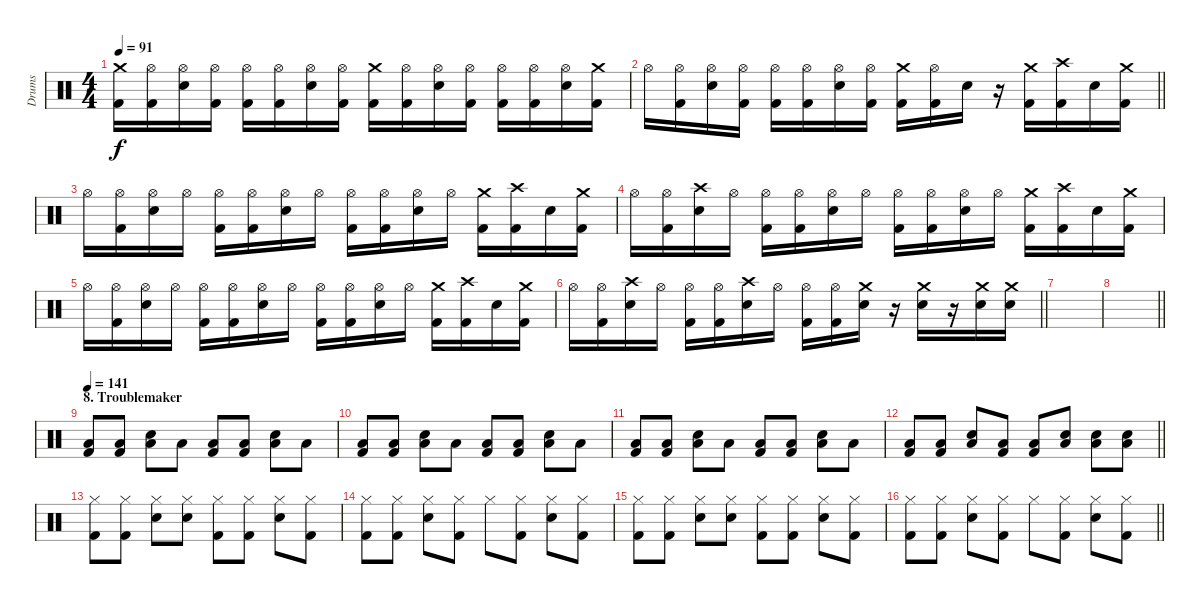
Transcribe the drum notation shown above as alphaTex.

\track ("Drums" "Drums") {instrument percussion}
\staff {score}
\articulation defaults
\ts (4 4)
\tempo 91
\clef neutral
\ks c
("Crash medium (hit)" "Kick (hit) 2").16{dy f} ("Hi-Hat (open)" "Kick (hit) 2").16 ("Hi-Hat (open)" "Electric Snare (hit)").16 ("Hi-Hat (open)" "Kick (hit) 2").16 ("Hi-Hat (open)" "Kick (hit) 2").16 ("Hi-Hat (open)" "Kick (hit) 2").16 ("Hi-Hat (open)" "Electric Snare (hit)").16 ("Hi-Hat (open)" "Kick (hit) 2").16 ("Crash medium (hit)" "Kick (hit) 2").16 ("Hi-Hat (open)" "Kick (hit) 2").16 ("Hi-Hat (open)" "Electric Snare (hit)").16 ("Hi-Hat (open)" "Kick (hit) 2").16 ("Hi-Hat (open)" "Kick (hit) 2").16 ("Hi-Hat (open)" "Kick (hit) 2").16 ("Hi-Hat (open)" "Electric Snare (hit)").16 ("Crash medium (hit)" "Kick (hit) 2").16 |
\barLineRight lightlight "Hi-Hat (open)".16
("Hi-Hat (open)" "Kick (hit) 2").16 ("Hi-Hat (open)" "Electric Snare (hit)").16 ("Hi-Hat (open)" "Kick (hit) 2").16 ("Hi-Hat (open)" "Kick (hit) 2").16 ("Hi-Hat (open)" "Kick (hit) 2").16 ("Hi-Hat (open)" "Electric Snare (hit)").16 ("Hi-Hat (open)" "Kick (hit) 2").16 ("Crash medium (hit)" "Kick (hit) 2").16 ("Hi-Hat (open)" "Kick (hit) 2").16 "Electric Snare (hit)".16 r.16 ("Crash medium (hit)" "Kick (hit) 2").16 ("Crash high (hit)" "Kick (hit) 2").16 "Electric Snare (hit)".16 ("Crash medium (hit)" "Kick (hit) 2").16 |
"Hi-Hat (open)".16 ("Hi-Hat (open)" "Kick (hit) 2").16 ("Hi-Hat (open)" "Electric Snare (hit)").16 "Hi-Hat (open)".16 ("Hi-Hat (open)" "Kick (hit) 2").16 ("Hi-Hat (open)" "Kick (hit) 2").16 ("Hi-Hat (open)" "Electric Snare (hit)").16 "Hi-Hat (open)".16 ("Hi-Hat (open)" "Kick (hit) 2").16 ("Hi-Hat (open)" "Kick (hit) 2").16 ("Hi-Hat (open)" "Electric Snare (hit)").16 "Hi-Hat (open)".16 ("Crash medium (hit)" "Kick (hit) 2").16 ("Crash high (hit)" "Kick (hit) 2").16 "Electric Snare (hit)".16 ("Crash medium (hit)" "Kick (hit) 2").16 |
"Hi-Hat (open)".16 ("Hi-Hat (open)" "Kick (hit) 2").16 ("Crash high (hit)" "Electric Snare (hit)").16 "Hi-Hat (open)".16 ("Hi-Hat (open)" "Kick (hit) 2").16 ("Hi-Hat (open)" "Kick (hit) 2").16 ("Hi-Hat (open)" "Electric Snare (hit)").16 "Hi-Hat (open)".16 ("Hi-Hat (open)" "Kick (hit) 2").16 ("Hi-Hat (open)" "Kick (hit) 2").16 ("Hi-Hat (open)" "Electric Snare (hit)").16 "Hi-Hat (open)".16 ("Crash medium (hit)" "Kick (hit) 2").16 ("Crash high (hit)" "Kick (hit) 2").16 "Electric Snare (hit)".16 ("Crash medium (hit)" "Kick (hit) 2").16 |
"Hi-Hat (open)".16 ("Hi-Hat (open)" "Kick (hit) 2").16 ("Hi-Hat (open)" "Electric Snare (hit)").16 "Hi-Hat (open)".16 ("Hi-Hat (open)" "Kick (hit) 2").16 ("Hi-Hat (open)" "Kick (hit) 2").16 ("Hi-Hat (open)" "Electric Snare (hit)").16 "Hi-Hat (open)".16 ("Hi-Hat (open)" "Kick (hit) 2").16 ("Hi-Hat (open)" "Kick (hit) 2").16 ("Hi-Hat (open)" "Electric Snare (hit)").16 "Hi-Hat (open)".16 ("Crash medium (hit)" "Kick (hit) 2").16 ("Crash high (hit)" "Kick (hit) 2").16 "Electric Snare (hit)".16 ("Crash medium (hit)" "Kick (hit) 2").16 |
\barLineRight lightlight "Hi-Hat (open)".16
("Hi-Hat (open)" "Kick (hit) 2").16 ("Crash high (hit)" "Electric Snare (hit)").16 "Hi-Hat (open)".16 ("Hi-Hat (open)" "Kick (hit) 2").16 ("Hi-Hat (open)" "Kick (hit) 2").16 ("Crash high (hit)" "Electric Snare (hit)").16 "Hi-Hat (open)".16 ("Hi-Hat (open)" "Kick (hit) 2").16 ("Hi-Hat (open)" "Kick (hit) 2").16 ("Crash medium (hit)" "Electric Snare (hit)").16 r.16 ("Crash medium (hit)" "Electric Snare (hit)").16 r.16 ("Crash medium (hit)" "Electric Snare (hit)").16 ("Crash medium (hit)" "Electric Snare (hit)").16 |
|
\barLineRight lightlight
|
\section ("" "8. Troublemaker")
\tempo 141
("Low Floor Tom (hit)" "Kick (hit) 2").8 ("Low Floor Tom (hit)" "Kick (hit) 2").8 ("Electric Snare (hit)" "Low Floor Tom (hit)").8 "Low Floor Tom (hit)".8 ("Low Floor Tom (hit)" "Kick (hit) 2").8 ("Low Floor Tom (hit)" "Kick (hit) 2").8 ("Electric Snare (hit)" "Low Floor Tom (hit)").8 "Low Floor Tom (hit)".8 |
("Low Floor Tom (hit)" "Kick (hit) 2").8 ("Low Floor Tom (hit)" "Kick (hit) 2").8 ("Electric Snare (hit)" "Low Floor Tom (hit)").8 "Low Floor Tom (hit)".8 ("Low Floor Tom (hit)" "Kick (hit) 2").8 ("Low Floor Tom (hit)" "Kick (hit) 2").8 ("Electric Snare (hit)" "Low Floor Tom (hit)").8 "Low Floor Tom (hit)".8 |
("Low Floor Tom (hit)" "Kick (hit) 2").8 ("Low Floor Tom (hit)" "Kick (hit) 2").8 ("Electric Snare (hit)" "Low Floor Tom (hit)").8 "Low Floor Tom (hit)".8 ("Low Floor Tom (hit)" "Kick (hit) 2").8 ("Low Floor Tom (hit)" "Kick (hit) 2").8 ("Electric Snare (hit)" "Low Floor Tom (hit)").8 "Low Floor Tom (hit)".8 |
\barLineRight lightlight
("Low Floor Tom (hit)" "Kick (hit) 2").8 ("Low Floor Tom (hit)" "Kick (hit) 2").8 ("Electric Snare (hit)" "Low Floor Tom (hit)").8 ("Low Floor Tom (hit)" "Kick (hit) 2").8 ("Low Floor Tom (hit)" "Kick (hit) 2").8 ("Electric Snare (hit)" "Low Floor Tom (hit)").8 ("Electric Snare (hit)" "Low Floor Tom (hit)").8 ("Electric Snare (hit)" "Low Floor Tom (hit)").8 |
("Hi-Hat (closed)" "Kick (hit) 2").8 ("Hi-Hat (closed)" "Kick (hit) 2").8 ("Hi-Hat (closed)" "Electric Snare (hit)").8 ("Hi-Hat (closed)" "Electric Snare (hit)").8 ("Hi-Hat (closed)" "Kick (hit) 2").8 ("Hi-Hat (closed)" "Kick (hit) 2").8 ("Hi-Hat (closed)" "Electric Snare (hit)").8 ("Hi-Hat (closed)" "Kick (hit) 2").8 |
("Hi-Hat (closed)" "Kick (hit) 2").8 ("Hi-Hat (closed)" "Kick (hit) 2").8 ("Hi-Hat (closed)" "Electric Snare (hit)").8 ("Hi-Hat (closed)" "Kick (hit) 2").8 "Hi-Hat (closed)".8 ("Hi-Hat (closed)" "Kick (hit) 2").8 ("Hi-Hat (closed)" "Electric Snare (hit)").8 ("Hi-Hat (closed)" "Kick (hit) 2").8 |
("Hi-Hat (closed)" "Kick (hit) 2").8 ("Hi-Hat (closed)" "Kick (hit) 2").8 ("Hi-Hat (closed)" "Electric Snare (hit)").8 ("Hi-Hat (closed)" "Electric Snare (hit)").8 ("Hi-Hat (closed)" "Kick (hit) 2").8 ("Hi-Hat (closed)" "Kick (hit) 2").8 ("Hi-Hat (closed)" "Electric Snare (hit)").8 ("Hi-Hat (closed)" "Kick (hit) 2").8 |
\barLineRight lightlight
("Hi-Hat (closed)" "Kick (hit) 2").8 ("Hi-Hat (closed)" "Kick (hit) 2").8 ("Hi-Hat (closed)" "Electric Snare (hit)").8 ("Hi-Hat (closed)" "Kick (hit) 2").8 "Hi-Hat (closed)".8 ("Hi-Hat (closed)" "Kick (hit) 2").8 ("Hi-Hat (closed)" "Electric Snare (hit)").8 ("Hi-Hat (closed)" "Kick (hit) 2").8
